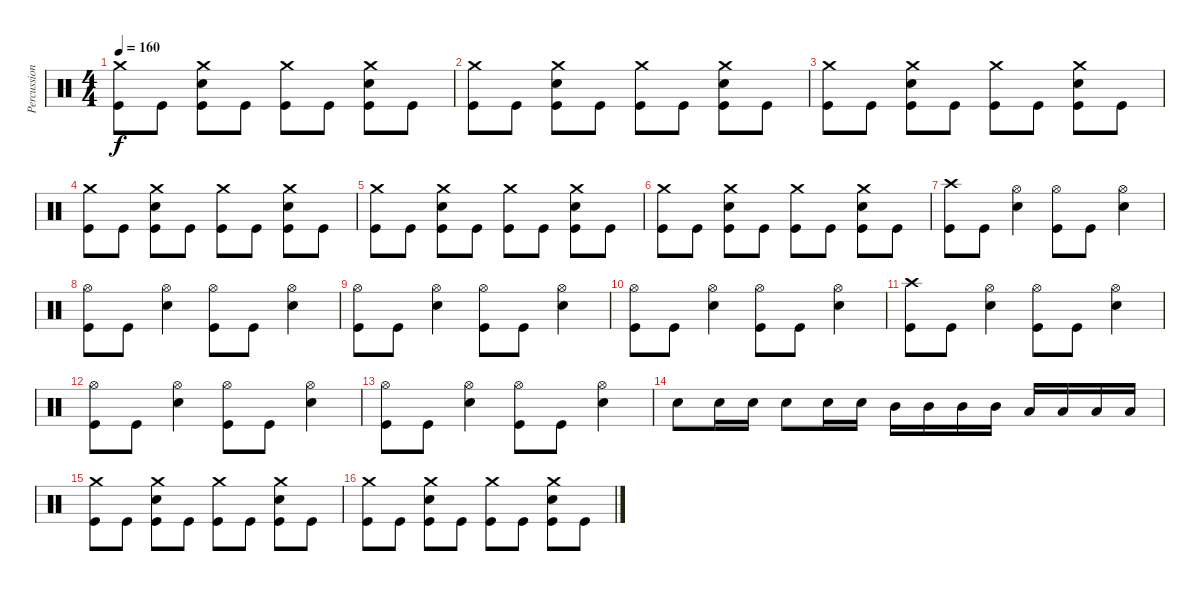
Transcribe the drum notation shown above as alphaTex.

\track ("Percussion" "Percussion") {instrument percussion}
\staff {score}
\articulation defaults
\ts (4 4)
\tempo 160
\clef neutral
\ks c
("Crash medium (hit)" "Kick (hit)").8{dy f} "Kick (hit)".8 ("Crash medium (hit)" "Electric Snare (hit)" "Kick (hit)").8 "Kick (hit)".8 ("Crash medium (hit)" "Kick (hit)").8 "Kick (hit)".8 ("Crash medium (hit)" "Electric Snare (hit)" "Kick (hit)").8 "Kick (hit)".8 |
("Crash medium (hit)" "Kick (hit)").8 "Kick (hit)".8 ("Crash medium (hit)" "Electric Snare (hit)" "Kick (hit)").8 "Kick (hit)".8 ("Crash medium (hit)" "Kick (hit)").8 "Kick (hit)".8 ("Crash medium (hit)" "Electric Snare (hit)" "Kick (hit)").8 "Kick (hit)".8 |
("Crash medium (hit)" "Kick (hit)").8 "Kick (hit)".8 ("Crash medium (hit)" "Electric Snare (hit)" "Kick (hit)").8 "Kick (hit)".8 ("Crash medium (hit)" "Kick (hit)").8 "Kick (hit)".8 ("Crash medium (hit)" "Electric Snare (hit)" "Kick (hit)").8 "Kick (hit)".8 |
("Crash medium (hit)" "Kick (hit)").8 "Kick (hit)".8 ("Crash medium (hit)" "Electric Snare (hit)" "Kick (hit)").8 "Kick (hit)".8 ("Crash medium (hit)" "Kick (hit)").8 "Kick (hit)".8 ("Crash medium (hit)" "Electric Snare (hit)" "Kick (hit)").8 "Kick (hit)".8 |
("Crash medium (hit)" "Kick (hit)").8 "Kick (hit)".8 ("Crash medium (hit)" "Electric Snare (hit)" "Kick (hit)").8 "Kick (hit)".8 ("Crash medium (hit)" "Kick (hit)").8 "Kick (hit)".8 ("Crash medium (hit)" "Electric Snare (hit)" "Kick (hit)").8 "Kick (hit)".8 |
("Crash medium (hit)" "Kick (hit)").8 "Kick (hit)".8 ("Crash medium (hit)" "Electric Snare (hit)" "Kick (hit)").8 "Kick (hit)".8 ("Crash medium (hit)" "Kick (hit)").8 "Kick (hit)".8 ("Crash medium (hit)" "Electric Snare (hit)" "Kick (hit)").8 "Kick (hit)".8 |
("Crash high (hit)" "Kick (hit)").8 "Kick (hit)".8 ("Hi-Hat (open)" "Electric Snare (hit)").4 ("Hi-Hat (open)" "Kick (hit)").8 "Kick (hit)".8 ("Hi-Hat (open)" "Electric Snare (hit)").4 |
("Hi-Hat (open)" "Kick (hit)").8 "Kick (hit)".8 ("Hi-Hat (open)" "Electric Snare (hit)").4 ("Hi-Hat (open)" "Kick (hit)").8 "Kick (hit)".8 ("Hi-Hat (open)" "Electric Snare (hit)").4 |
("Hi-Hat (open)" "Kick (hit)").8 "Kick (hit)".8 ("Hi-Hat (open)" "Electric Snare (hit)").4 ("Hi-Hat (open)" "Kick (hit)").8 "Kick (hit)".8 ("Hi-Hat (open)" "Electric Snare (hit)").4 |
("Hi-Hat (open)" "Kick (hit)").8 "Kick (hit)".8 ("Hi-Hat (open)" "Electric Snare (hit)").4 ("Hi-Hat (open)" "Kick (hit)").8 "Kick (hit)".8 ("Hi-Hat (open)" "Electric Snare (hit)").4 |
("Crash high (hit)" "Kick (hit)").8 "Kick (hit)".8 ("Hi-Hat (open)" "Electric Snare (hit)").4 ("Hi-Hat (open)" "Kick (hit)").8 "Kick (hit)".8 ("Hi-Hat (open)" "Electric Snare (hit)").4 |
("Hi-Hat (open)" "Kick (hit)").8 "Kick (hit)".8 ("Hi-Hat (open)" "Electric Snare (hit)").4 ("Hi-Hat (open)" "Kick (hit)").8 "Kick (hit)".8 ("Hi-Hat (open)" "Electric Snare (hit)").4 |
("Hi-Hat (open)" "Kick (hit)").8 "Kick (hit)".8 ("Hi-Hat (open)" "Electric Snare (hit)").4 ("Hi-Hat (open)" "Kick (hit)").8 "Kick (hit)".8 ("Hi-Hat (open)" "Electric Snare (hit)").4 |
"Electric Snare (hit)".8 "Electric Snare (hit)".16 "Electric Snare (hit)".16 "Electric Snare (hit)".8 "Electric Snare (hit)".16 "Electric Snare (hit)".16 "Mid Tom (hit)".16 "Mid Tom (hit)".16 "Mid Tom (hit)".16 "Mid Tom (hit)".16 "Low Tom (hit)".16 "Low Tom (hit)".16 "Low Tom (hit)".16 "Low Tom (hit)".16 |
("Crash medium (hit)" "Kick (hit)").8 "Kick (hit)".8 ("Crash medium (hit)" "Electric Snare (hit)" "Kick (hit)").8 "Kick (hit)".8 ("Crash medium (hit)" "Kick (hit)").8 "Kick (hit)".8 ("Crash medium (hit)" "Electric Snare (hit)" "Kick (hit)").8 "Kick (hit)".8 |
("Crash medium (hit)" "Kick (hit)").8 "Kick (hit)".8 ("Crash medium (hit)" "Electric Snare (hit)" "Kick (hit)").8 "Kick (hit)".8 ("Crash medium (hit)" "Kick (hit)").8 "Kick (hit)".8 ("Crash medium (hit)" "Electric Snare (hit)" "Kick (hit)").8 "Kick (hit)".8
